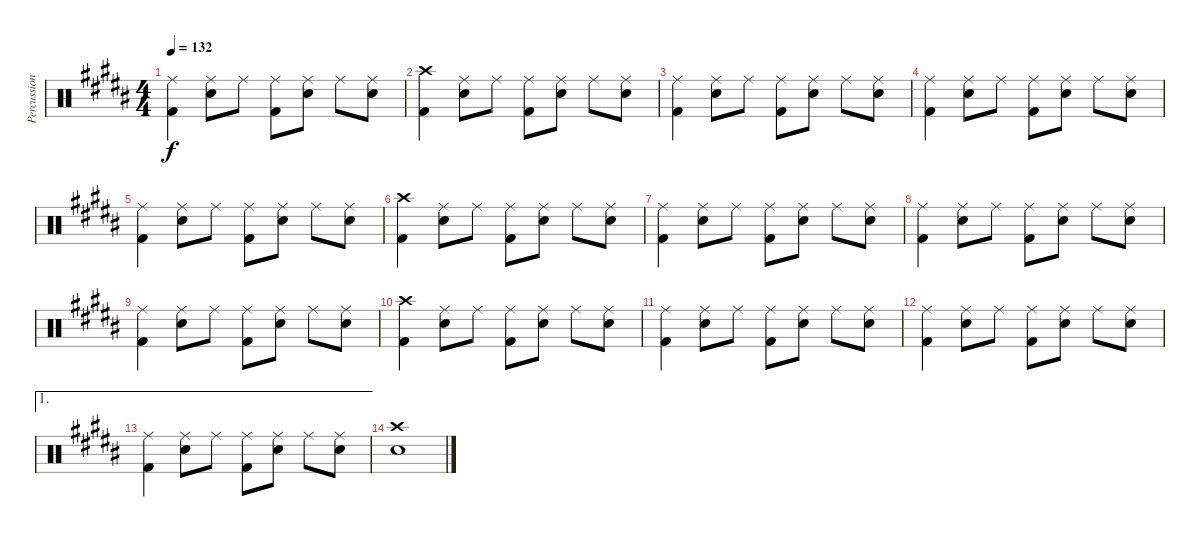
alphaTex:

\track ("Percussions (Will Champion)" "Percussion") {instrument percussion}
\staff {score}
\articulation defaults
\ts (4 4)
\tempo 132
\clef neutral
\ks b
("Ride (middle)" "Kick (hit) 2").4{dy f} ("Ride (middle)" "Snare (hit) 2").8 "Ride (middle)".8 ("Ride (middle)" "Kick (hit) 2").8 ("Ride (middle)" "Snare (hit) 2").8 "Ride (middle)".8 ("Ride (middle)" "Snare (hit) 2").8 |
("Crash high (hit)" "Kick (hit) 2").4 ("Ride (middle)" "Snare (hit) 2").8 "Ride (middle)".8 ("Ride (middle)" "Kick (hit) 2").8 ("Ride (middle)" "Snare (hit) 2").8 "Ride (middle)".8 ("Ride (middle)" "Snare (hit) 2").8 |
("Ride (middle)" "Kick (hit) 2").4 ("Ride (middle)" "Snare (hit) 2").8 "Ride (middle)".8 ("Ride (middle)" "Kick (hit) 2").8 ("Ride (middle)" "Snare (hit) 2").8 "Ride (middle)".8 ("Ride (middle)" "Snare (hit) 2").8 |
("Ride (middle)" "Kick (hit) 2").4 ("Ride (middle)" "Snare (hit) 2").8 "Ride (middle)".8 ("Ride (middle)" "Kick (hit) 2").8 ("Ride (middle)" "Snare (hit) 2").8 "Ride (middle)".8 ("Ride (middle)" "Snare (hit) 2").8 |
("Ride (middle)" "Kick (hit) 2").4 ("Ride (middle)" "Snare (hit) 2").8 "Ride (middle)".8 ("Ride (middle)" "Kick (hit) 2").8 ("Ride (middle)" "Snare (hit) 2").8 "Ride (middle)".8 ("Ride (middle)" "Snare (hit) 2").8 |
("Crash high (hit)" "Kick (hit) 2").4 ("Ride (middle)" "Snare (hit) 2").8 "Ride (middle)".8 ("Ride (middle)" "Kick (hit) 2").8 ("Ride (middle)" "Snare (hit) 2").8 "Ride (middle)".8 ("Ride (middle)" "Snare (hit) 2").8 |
("Ride (middle)" "Kick (hit) 2").4 ("Ride (middle)" "Snare (hit) 2").8 "Ride (middle)".8 ("Ride (middle)" "Kick (hit) 2").8 ("Ride (middle)" "Snare (hit) 2").8 "Ride (middle)".8 ("Ride (middle)" "Snare (hit) 2").8 |
("Ride (middle)" "Kick (hit) 2").4 ("Ride (middle)" "Snare (hit) 2").8 "Ride (middle)".8 ("Ride (middle)" "Kick (hit) 2").8 ("Ride (middle)" "Snare (hit) 2").8 "Ride (middle)".8 ("Ride (middle)" "Snare (hit) 2").8 |
("Ride (middle)" "Kick (hit) 2").4 ("Ride (middle)" "Snare (hit) 2").8 "Ride (middle)".8 ("Ride (middle)" "Kick (hit) 2").8 ("Ride (middle)" "Snare (hit) 2").8 "Ride (middle)".8 ("Ride (middle)" "Snare (hit) 2").8 |
("Crash high (hit)" "Kick (hit) 2").4 ("Ride (middle)" "Snare (hit) 2").8 "Ride (middle)".8 ("Ride (middle)" "Kick (hit) 2").8 ("Ride (middle)" "Snare (hit) 2").8 "Ride (middle)".8 ("Ride (middle)" "Snare (hit) 2").8 |
("Ride (middle)" "Kick (hit) 2").4 ("Ride (middle)" "Snare (hit) 2").8 "Ride (middle)".8 ("Ride (middle)" "Kick (hit) 2").8 ("Ride (middle)" "Snare (hit) 2").8 "Ride (middle)".8 ("Ride (middle)" "Snare (hit) 2").8 |
("Ride (middle)" "Kick (hit) 2").4 ("Ride (middle)" "Snare (hit) 2").8 "Ride (middle)".8 ("Ride (middle)" "Kick (hit) 2").8 ("Ride (middle)" "Snare (hit) 2").8 "Ride (middle)".8 ("Ride (middle)" "Snare (hit) 2").8 |
\ae 1
("Ride (middle)" "Kick (hit) 2").4 ("Ride (middle)" "Snare (hit) 2").8 "Ride (middle)".8 ("Ride (middle)" "Kick (hit) 2").8 ("Ride (middle)" "Snare (hit) 2").8 "Ride (middle)".8 ("Ride (middle)" "Snare (hit) 2").8 |
("Snare (hit) 2" "Crash high (hit)").1
